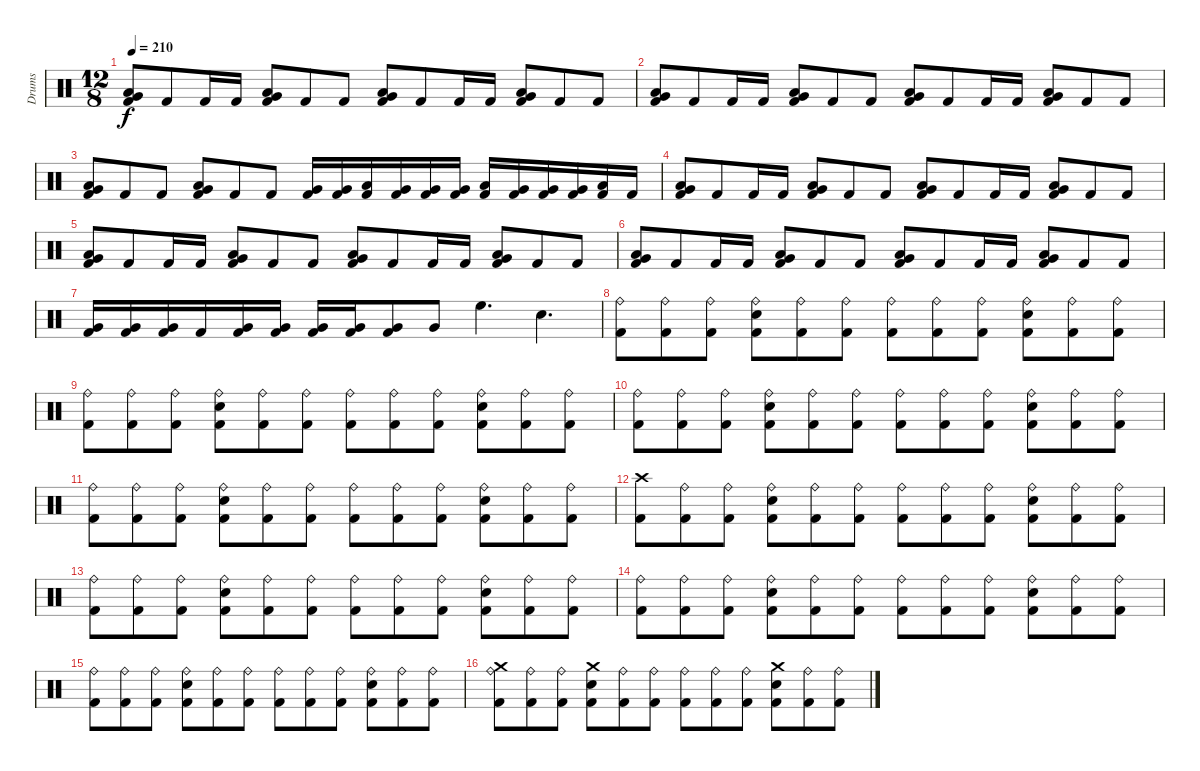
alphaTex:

\track ("Drums" "Drums") {instrument percussion}
\staff {score}
\articulation defaults
\ts (12 8)
\tempo 210
\clef neutral
\ks c
("Very Low Tom (hit)" "Low Tom (hit)" "Kick (hit) 2").8{dy f} "Kick (hit) 2".8 "Kick (hit) 2".16 "Kick (hit) 2".16 ("Very Low Tom (hit)" "Low Tom (hit)" "Kick (hit) 2").8 "Kick (hit) 2".8 "Kick (hit) 2".8 ("Very Low Tom (hit)" "Low Tom (hit)" "Kick (hit) 2").8 "Kick (hit) 2".8 "Kick (hit) 2".16 "Kick (hit) 2".16 ("Very Low Tom (hit)" "Low Tom (hit)" "Kick (hit) 2").8 "Kick (hit) 2".8 "Kick (hit) 2".8 |
("Very Low Tom (hit)" "Low Tom (hit)" "Kick (hit) 2").8 "Kick (hit) 2".8 "Kick (hit) 2".16 "Kick (hit) 2".16 ("Very Low Tom (hit)" "Low Tom (hit)" "Kick (hit) 2").8 "Kick (hit) 2".8 "Kick (hit) 2".8 ("Very Low Tom (hit)" "Low Tom (hit)" "Kick (hit) 2").8 "Kick (hit) 2".8 "Kick (hit) 2".16 "Kick (hit) 2".16 ("Very Low Tom (hit)" "Low Tom (hit)" "Kick (hit) 2").8 "Kick (hit) 2".8 "Kick (hit) 2".8 |
("Very Low Tom (hit)" "Low Tom (hit)" "Kick (hit) 2").8 "Kick (hit) 2".8 "Kick (hit) 2".8 ("Very Low Tom (hit)" "Low Tom (hit)" "Kick (hit) 2").8 "Kick (hit) 2".8 "Kick (hit) 2".8 ("Very Low Tom (hit)" "Kick (hit) 2").16 ("Very Low Tom (hit)" "Kick (hit) 2").16 ("Low Tom (hit)" "Kick (hit) 2").16 ("Very Low Tom (hit)" "Kick (hit) 2").16 ("Very Low Tom (hit)" "Kick (hit) 2").16 ("Very Low Tom (hit)" "Kick (hit) 2").16 ("Low Tom (hit)" "Kick (hit) 2").16 ("Very Low Tom (hit)" "Kick (hit) 2").16 ("Very Low Tom (hit)" "Kick (hit) 2").16 ("Very Low Tom (hit)" "Kick (hit) 2").16 ("Low Tom (hit)" "Kick (hit) 2").16 "Kick (hit) 2".16 |
("Very Low Tom (hit)" "Low Tom (hit)" "Kick (hit) 2").8 "Kick (hit) 2".8 "Kick (hit) 2".16 "Kick (hit) 2".16 ("Very Low Tom (hit)" "Low Tom (hit)" "Kick (hit) 2").8 "Kick (hit) 2".8 "Kick (hit) 2".8 ("Very Low Tom (hit)" "Low Tom (hit)" "Kick (hit) 2").8 "Kick (hit) 2".8 "Kick (hit) 2".16 "Kick (hit) 2".16 ("Very Low Tom (hit)" "Low Tom (hit)" "Kick (hit) 2").8 "Kick (hit) 2".8 "Kick (hit) 2".8 |
("Very Low Tom (hit)" "Low Tom (hit)" "Kick (hit) 2").8 "Kick (hit) 2".8 "Kick (hit) 2".16 "Kick (hit) 2".16 ("Very Low Tom (hit)" "Low Tom (hit)" "Kick (hit) 2").8 "Kick (hit) 2".8 "Kick (hit) 2".8 ("Very Low Tom (hit)" "Low Tom (hit)" "Kick (hit) 2").8 "Kick (hit) 2".8 "Kick (hit) 2".16 "Kick (hit) 2".16 ("Very Low Tom (hit)" "Low Tom (hit)" "Kick (hit) 2").8 "Kick (hit) 2".8 "Kick (hit) 2".8 |
("Very Low Tom (hit)" "Low Tom (hit)" "Kick (hit) 2").8 "Kick (hit) 2".8 "Kick (hit) 2".16 "Kick (hit) 2".16 ("Very Low Tom (hit)" "Low Tom (hit)" "Kick (hit) 2").8 "Kick (hit) 2".8 "Kick (hit) 2".8 ("Very Low Tom (hit)" "Low Tom (hit)" "Kick (hit) 2").8 "Kick (hit) 2".8 "Kick (hit) 2".16 "Kick (hit) 2".16 ("Very Low Tom (hit)" "Low Tom (hit)" "Kick (hit) 2").8 "Kick (hit) 2".8 "Kick (hit) 2".8 |
("Very Low Tom (hit)" "Kick (hit) 2").16 ("Very Low Tom (hit)" "Kick (hit) 2").16 ("Very Low Tom (hit)" "Kick (hit) 2").16 "Kick (hit) 2".16 ("Very Low Tom (hit)" "Kick (hit) 2").16 ("Very Low Tom (hit)" "Kick (hit) 2").16 ("Very Low Tom (hit)" "Kick (hit) 2").16 ("Very Low Tom (hit)" "Kick (hit) 2").16 ("Very Low Tom (hit)" "Kick (hit) 2").8 "Very Low Tom (hit)".8 "High Floor Tom (hit)".4{d} "Snare (hit) 2".4{d} |
("Ride (bell)" "Kick (hit) 2").8 ("Ride (bell)" "Kick (hit) 2").8 ("Ride (bell)" "Kick (hit) 2").8 ("Ride (bell)" "Snare (hit) 2" "Kick (hit) 2").8 ("Ride (bell)" "Kick (hit) 2").8 ("Ride (bell)" "Kick (hit) 2").8 ("Ride (bell)" "Kick (hit) 2").8 ("Ride (bell)" "Kick (hit) 2").8 ("Ride (bell)" "Kick (hit) 2").8 ("Ride (bell)" "Snare (hit) 2" "Kick (hit) 2").8 ("Ride (bell)" "Kick (hit) 2").8 ("Ride (bell)" "Kick (hit) 2").8 |
("Ride (bell)" "Kick (hit) 2").8 ("Ride (bell)" "Kick (hit) 2").8 ("Ride (bell)" "Kick (hit) 2").8 ("Ride (bell)" "Snare (hit) 2" "Kick (hit) 2").8 ("Ride (bell)" "Kick (hit) 2").8 ("Ride (bell)" "Kick (hit) 2").8 ("Ride (bell)" "Kick (hit) 2").8 ("Ride (bell)" "Kick (hit) 2").8 ("Ride (bell)" "Kick (hit) 2").8 ("Ride (bell)" "Snare (hit) 2" "Kick (hit) 2").8 ("Ride (bell)" "Kick (hit) 2").8 ("Ride (bell)" "Kick (hit) 2").8 |
("Ride (bell)" "Kick (hit) 2").8 ("Ride (bell)" "Kick (hit) 2").8 ("Ride (bell)" "Kick (hit) 2").8 ("Ride (bell)" "Snare (hit) 2" "Kick (hit) 2").8 ("Ride (bell)" "Kick (hit) 2").8 ("Ride (bell)" "Kick (hit) 2").8 ("Ride (bell)" "Kick (hit) 2").8 ("Ride (bell)" "Kick (hit) 2").8 ("Ride (bell)" "Kick (hit) 2").8 ("Ride (bell)" "Snare (hit) 2" "Kick (hit) 2").8 ("Ride (bell)" "Kick (hit) 2").8 ("Ride (bell)" "Kick (hit) 2").8 |
("Ride (bell)" "Kick (hit) 2").8 ("Ride (bell)" "Kick (hit) 2").8 ("Ride (bell)" "Kick (hit) 2").8 ("Ride (bell)" "Snare (hit) 2" "Kick (hit) 2").8 ("Ride (bell)" "Kick (hit) 2").8 ("Ride (bell)" "Kick (hit) 2").8 ("Ride (bell)" "Kick (hit) 2").8 ("Ride (bell)" "Kick (hit) 2").8 ("Ride (bell)" "Kick (hit) 2").8 ("Ride (bell)" "Snare (hit) 2" "Kick (hit) 2").8 ("Ride (bell)" "Kick (hit) 2").8 ("Ride (bell)" "Kick (hit) 2").8 |
("Crash high (hit)" "Kick (hit) 2").8 ("Ride (bell)" "Kick (hit) 2").8 ("Ride (bell)" "Kick (hit) 2").8 ("Ride (bell)" "Snare (hit) 2" "Kick (hit) 2").8 ("Ride (bell)" "Kick (hit) 2").8 ("Ride (bell)" "Kick (hit) 2").8 ("Ride (bell)" "Kick (hit) 2").8 ("Ride (bell)" "Kick (hit) 2").8 ("Ride (bell)" "Kick (hit) 2").8 ("Ride (bell)" "Snare (hit) 2" "Kick (hit) 2").8 ("Ride (bell)" "Kick (hit) 2").8 ("Ride (bell)" "Kick (hit) 2").8 |
("Ride (bell)" "Kick (hit) 2").8 ("Ride (bell)" "Kick (hit) 2").8 ("Ride (bell)" "Kick (hit) 2").8 ("Ride (bell)" "Snare (hit) 2" "Kick (hit) 2").8 ("Ride (bell)" "Kick (hit) 2").8 ("Ride (bell)" "Kick (hit) 2").8 ("Ride (bell)" "Kick (hit) 2").8 ("Ride (bell)" "Kick (hit) 2").8 ("Ride (bell)" "Kick (hit) 2").8 ("Ride (bell)" "Snare (hit) 2" "Kick (hit) 2").8 ("Ride (bell)" "Kick (hit) 2").8 ("Ride (bell)" "Kick (hit) 2").8 |
("Ride (bell)" "Kick (hit) 2").8 ("Ride (bell)" "Kick (hit) 2").8 ("Ride (bell)" "Kick (hit) 2").8 ("Ride (bell)" "Snare (hit) 2" "Kick (hit) 2").8 ("Ride (bell)" "Kick (hit) 2").8 ("Ride (bell)" "Kick (hit) 2").8 ("Ride (bell)" "Kick (hit) 2").8 ("Ride (bell)" "Kick (hit) 2").8 ("Ride (bell)" "Kick (hit) 2").8 ("Ride (bell)" "Snare (hit) 2" "Kick (hit) 2").8 ("Ride (bell)" "Kick (hit) 2").8 ("Ride (bell)" "Kick (hit) 2").8 |
("Ride (bell)" "Kick (hit) 2").8 ("Ride (bell)" "Kick (hit) 2").8 ("Ride (bell)" "Kick (hit) 2").8 ("Ride (bell)" "Snare (hit) 2" "Kick (hit) 2").8 ("Ride (bell)" "Kick (hit) 2").8 ("Ride (bell)" "Kick (hit) 2").8 ("Ride (bell)" "Kick (hit) 2").8 ("Ride (bell)" "Kick (hit) 2").8 ("Ride (bell)" "Kick (hit) 2").8 ("Ride (bell)" "Snare (hit) 2" "Kick (hit) 2").8 ("Ride (bell)" "Kick (hit) 2").8 ("Ride (bell)" "Kick (hit) 2").8 |
("Crash medium (hit)" "Ride (bell)" "Kick (hit) 2").8 ("Ride (bell)" "Kick (hit) 2").8 ("Ride (bell)" "Kick (hit) 2").8 ("Crash medium (hit)" "Snare (hit) 2" "Kick (hit) 2").8 ("Ride (bell)" "Kick (hit) 2").8 ("Ride (bell)" "Kick (hit) 2").8 ("Ride (bell)" "Kick (hit) 2").8 ("Ride (bell)" "Kick (hit) 2").8 ("Ride (bell)" "Kick (hit) 2").8 ("Crash medium (hit)" "Snare (hit) 2" "Kick (hit) 2").8 ("Ride (bell)" "Kick (hit) 2").8 ("Ride (bell)" "Kick (hit) 2").8
